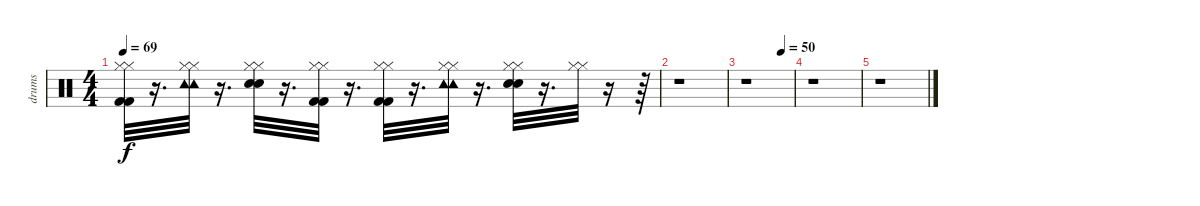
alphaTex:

\track ("drums" "drums") {instrument percussion}
\staff {score}
\articulation defaults
\ts (4 4)
\tempo 69
\clef neutral
\ks c
("Hi-Hat (closed)" "Kick (hit) 2" "Hi-Hat (closed)" "Kick (hit) 2").32{dy f} r.16{d} ("Hi-Hat (closed)" "Tambourine (hit)" "Hi-Hat (closed)" "Tambourine (hit)").32 r.16{d} ("Hi-Hat (closed)" "Snare (hit) 2" "Hi-Hat (closed)" "Snare (hit) 2").32 r.16{d} ("Hi-Hat (closed)" "Kick (hit) 2" "Hi-Hat (closed)" "Kick (hit) 2").32 r.16{d} ("Hi-Hat (closed)" "Kick (hit) 2" "Hi-Hat (closed)" "Kick (hit) 2").32 r.16{d} ("Hi-Hat (closed)" "Tambourine (hit)" "Hi-Hat (closed)" "Tambourine (hit)").32 r.16{d} ("Hi-Hat (closed)" "Snare (hit) 2" "Hi-Hat (closed)" "Snare (hit) 2").32 r.16{d} ("Hi-Hat (closed)" "Hi-Hat (closed)").32 r.16 r.64 |
r.1 |
\tempo (50 0.75)
r.1 |
r.1 |
r.1
